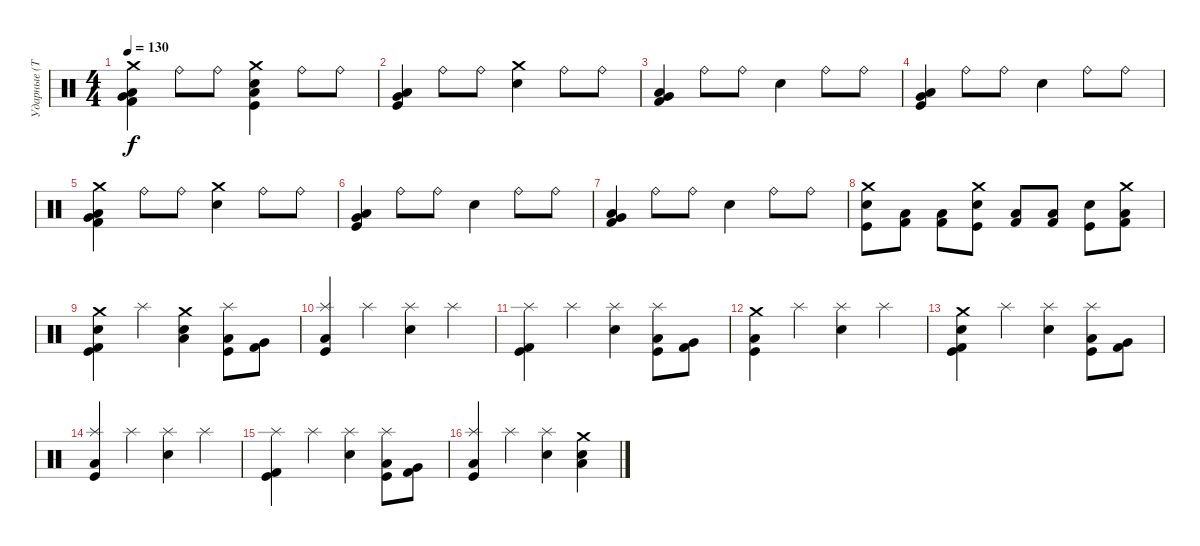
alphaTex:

\track ("Ударные (Тьодальв)" "Ударные (Т") {instrument percussion}
\staff {score}
\articulation defaults
\ts (4 4)
\tempo 130
\clef neutral
\ks c
("Crash medium (hit)" "Low Floor Tom (hit)" "Very Low Tom (hit)" "Kick (hit) 2").4{dy f} "Ride (bell)".8 "Ride (bell)".8 ("Crash medium (hit)" "Snare (hit) 2" "Low Floor Tom (hit)" "Kick (hit)").4 "Ride (bell)".8 "Ride (bell)".8 |
("Low Floor Tom (hit)" "Very Low Tom (hit)" "Kick (hit)").4 "Ride (bell)".8 "Ride (bell)".8 ("Snare (hit) 2" "Crash medium (hit)").4 "Ride (bell)".8 "Ride (bell)".8 |
("Low Floor Tom (hit)" "Very Low Tom (hit)" "Kick (hit) 2").4 "Ride (bell)".8 "Ride (bell)".8 "Snare (hit) 2".4 "Ride (bell)".8 "Ride (bell)".8 |
("Low Floor Tom (hit)" "Very Low Tom (hit)" "Kick (hit)").4 "Ride (bell)".8 "Ride (bell)".8 "Snare (hit) 2".4 "Ride (bell)".8 "Ride (bell)".8 |
("Crash medium (hit)" "Low Floor Tom (hit)" "Very Low Tom (hit)" "Kick (hit) 2").4 "Ride (bell)".8 "Ride (bell)".8 ("Snare (hit) 2" "Crash medium (hit)").4 "Ride (bell)".8 "Ride (bell)".8 |
("Low Floor Tom (hit)" "Very Low Tom (hit)" "Kick (hit)").4 "Ride (bell)".8 "Ride (bell)".8 "Snare (hit) 2".4 "Ride (bell)".8 "Ride (bell)".8 |
("Low Floor Tom (hit)" "Very Low Tom (hit)" "Kick (hit) 2").4 "Ride (bell)".8 "Ride (bell)".8 "Snare (hit) 2".4 "Ride (bell)".8 "Ride (bell)".8 |
("Crash medium (hit)" "Snare (hit) 2" "Kick (hit)").8 ("Low Floor Tom (hit)" "Kick (hit) 2").8 ("Low Floor Tom (hit)" "Kick (hit) 2").8 ("Crash medium (hit)" "Snare (hit) 2" "Kick (hit)").8 ("Low Floor Tom (hit)" "Kick (hit) 2").8 ("Low Floor Tom (hit)" "Kick (hit) 2").8 ("Snare (hit) 2" "Kick (hit)").8 ("Crash medium (hit)" "Low Floor Tom (hit)" "Kick (hit) 2").8 |
("Crash medium (hit)" "Snare (hit) 2" "Kick (hit)" "Kick (hit) 2").4 "Splash (hit)".4 ("Crash medium (hit)" "Snare (hit) 2" "Low Floor Tom (hit)").4 ("Splash (hit)" "Kick (hit)" "Low Floor Tom (hit)").8 ("Kick (hit) 2" "Very Low Tom (hit)").8 |
("Splash (hit)" "Low Tom (hit)" "Kick (hit)").4 "Splash (hit)".4 ("Splash (hit)" "Snare (hit) 2").4 "Splash (hit)".4 |
("Splash (hit)" "Kick (hit)" "Kick (hit) 2").4 "Splash (hit)".4 ("Splash (hit)" "Snare (hit) 2").4 ("Splash (hit)" "Kick (hit)" "Low Floor Tom (hit)").8 ("Kick (hit) 2" "Very Low Tom (hit)").8 |
("Crash medium (hit)" "Kick (hit)" "Low Tom (hit)").4 "Splash (hit)".4 ("Splash (hit)" "Snare (hit) 2").4 "Splash (hit)".4 |
("Crash medium (hit)" "Snare (hit) 2" "Kick (hit)" "Kick (hit) 2").4{volume 11} "Splash (hit)".4{volume 11} ("Splash (hit)" "Snare (hit) 2").4{volume 11} ("Splash (hit)" "Kick (hit)" "Low Floor Tom (hit)").8{volume 11} ("Kick (hit) 2" "Very Low Tom (hit)").8{volume 11} |
("Splash (hit)" "Low Tom (hit)" "Kick (hit)").4{volume 10} "Splash (hit)".4{volume 10} ("Splash (hit)" "Snare (hit) 2").4{volume 9} "Splash (hit)".4{volume 9} |
("Splash (hit)" "Kick (hit)" "Kick (hit) 2").4{volume 8} "Splash (hit)".4{volume 8} ("Splash (hit)" "Snare (hit) 2").4{volume 7} ("Splash (hit)" "Kick (hit)" "Low Floor Tom (hit)").8{volume 6} ("Kick (hit) 2" "Very Low Tom (hit)").8{volume 6} |
("Splash (hit)" "Low Tom (hit)" "Kick (hit)").4{volume 5} "Splash (hit)".4{volume 5} ("Splash (hit)" "Snare (hit) 2").4{volume 4} ("Snare (hit) 2" "Crash medium (hit)" "Low Floor Tom (hit)").4{volume 4}
